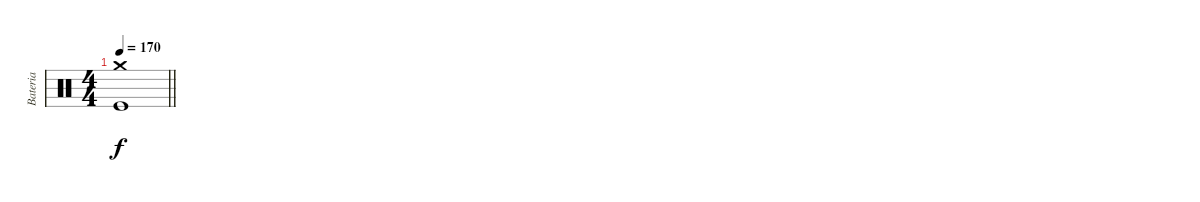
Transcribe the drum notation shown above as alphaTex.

\track ("Bateria" "Bateria") {instrument percussion}
\staff {score}
\articulation defaults
\ts (4 4)
\tempo 170
\clef neutral
\barLineRight lightlight
\ks c
("Kick (hit)" "Crash medium (hit)").1{dy f}
